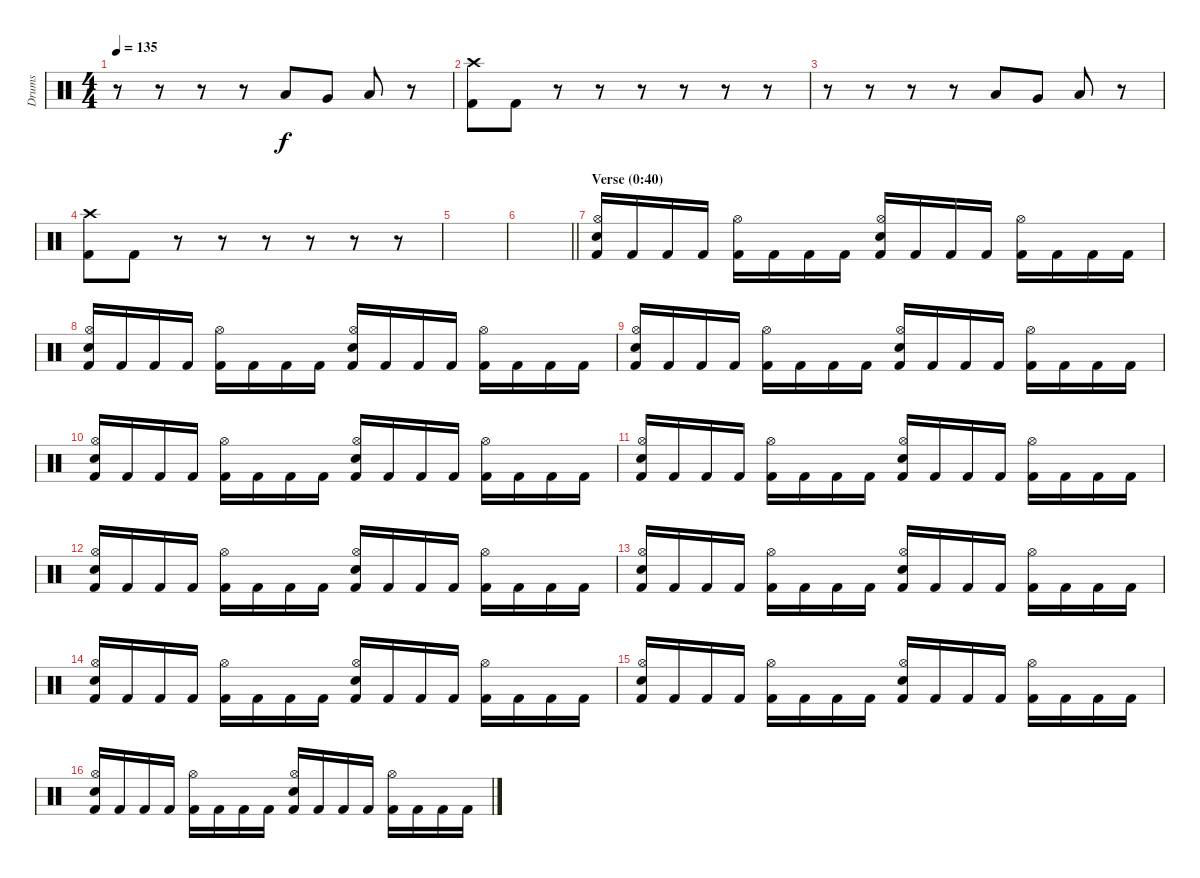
\track ("Drums" "Drums") {instrument percussion}
\staff {score}
\articulation defaults
\ts (4 4)
\tempo 135
\clef neutral
\ks c
r.8{dy f} r.8 r.8 r.8 "Low Tom (hit)".8 "Very Low Tom (hit)".8 "Low Floor Tom (hit)".8 r.8 |
("Crash high (hit)" "Kick (hit) 2").8 "Kick (hit) 2".8 r.8 r.8 r.8 r.8 r.8 r.8 |
r.8 r.8 r.8 r.8 "Low Tom (hit)".8 "Very Low Tom (hit)".8 "Low Floor Tom (hit)".8 r.8 |
("Crash high (hit)" "Kick (hit) 2").8 "Kick (hit) 2".8 r.8 r.8 r.8 r.8 r.8 r.8 |
|
\barLineRight lightlight
|
\section ("" "Verse (0:40)")
("Hi-Hat (open)" "Electric Snare (hit)" "Kick (hit) 2").16 "Kick (hit) 2".16 "Kick (hit) 2".16 "Kick (hit) 2".16 ("Hi-Hat (open)" "Kick (hit) 2").16 "Kick (hit) 2".16 "Kick (hit) 2".16 "Kick (hit) 2".16 ("Hi-Hat (open)" "Electric Snare (hit)" "Kick (hit) 2").16 "Kick (hit) 2".16 "Kick (hit) 2".16 "Kick (hit) 2".16 ("Hi-Hat (open)" "Kick (hit) 2").16 "Kick (hit) 2".16 "Kick (hit) 2".16 "Kick (hit) 2".16 |
("Hi-Hat (open)" "Electric Snare (hit)" "Kick (hit) 2").16 "Kick (hit) 2".16 "Kick (hit) 2".16 "Kick (hit) 2".16 ("Hi-Hat (open)" "Kick (hit) 2").16 "Kick (hit) 2".16 "Kick (hit) 2".16 "Kick (hit) 2".16 ("Hi-Hat (open)" "Electric Snare (hit)" "Kick (hit) 2").16 "Kick (hit) 2".16 "Kick (hit) 2".16 "Kick (hit) 2".16 ("Hi-Hat (open)" "Kick (hit) 2").16 "Kick (hit) 2".16 "Kick (hit) 2".16 "Kick (hit) 2".16 |
("Hi-Hat (open)" "Electric Snare (hit)" "Kick (hit) 2").16 "Kick (hit) 2".16 "Kick (hit) 2".16 "Kick (hit) 2".16 ("Hi-Hat (open)" "Kick (hit) 2").16 "Kick (hit) 2".16 "Kick (hit) 2".16 "Kick (hit) 2".16 ("Hi-Hat (open)" "Electric Snare (hit)" "Kick (hit) 2").16 "Kick (hit) 2".16 "Kick (hit) 2".16 "Kick (hit) 2".16 ("Hi-Hat (open)" "Kick (hit) 2").16 "Kick (hit) 2".16 "Kick (hit) 2".16 "Kick (hit) 2".16 |
("Hi-Hat (open)" "Electric Snare (hit)" "Kick (hit) 2").16 "Kick (hit) 2".16 "Kick (hit) 2".16 "Kick (hit) 2".16 ("Hi-Hat (open)" "Kick (hit) 2").16 "Kick (hit) 2".16 "Kick (hit) 2".16 "Kick (hit) 2".16 ("Hi-Hat (open)" "Electric Snare (hit)" "Kick (hit) 2").16 "Kick (hit) 2".16 "Kick (hit) 2".16 "Kick (hit) 2".16 ("Hi-Hat (open)" "Kick (hit) 2").16 "Kick (hit) 2".16 "Kick (hit) 2".16 "Kick (hit) 2".16 |
("Hi-Hat (open)" "Electric Snare (hit)" "Kick (hit) 2").16 "Kick (hit) 2".16 "Kick (hit) 2".16 "Kick (hit) 2".16 ("Hi-Hat (open)" "Kick (hit) 2").16 "Kick (hit) 2".16 "Kick (hit) 2".16 "Kick (hit) 2".16 ("Hi-Hat (open)" "Electric Snare (hit)" "Kick (hit) 2").16 "Kick (hit) 2".16 "Kick (hit) 2".16 "Kick (hit) 2".16 ("Hi-Hat (open)" "Kick (hit) 2").16 "Kick (hit) 2".16 "Kick (hit) 2".16 "Kick (hit) 2".16 |
("Hi-Hat (open)" "Electric Snare (hit)" "Kick (hit) 2").16 "Kick (hit) 2".16 "Kick (hit) 2".16 "Kick (hit) 2".16 ("Hi-Hat (open)" "Kick (hit) 2").16 "Kick (hit) 2".16 "Kick (hit) 2".16 "Kick (hit) 2".16 ("Hi-Hat (open)" "Electric Snare (hit)" "Kick (hit) 2").16 "Kick (hit) 2".16 "Kick (hit) 2".16 "Kick (hit) 2".16 ("Hi-Hat (open)" "Kick (hit) 2").16 "Kick (hit) 2".16 "Kick (hit) 2".16 "Kick (hit) 2".16 |
("Hi-Hat (open)" "Electric Snare (hit)" "Kick (hit) 2").16 "Kick (hit) 2".16 "Kick (hit) 2".16 "Kick (hit) 2".16 ("Hi-Hat (open)" "Kick (hit) 2").16 "Kick (hit) 2".16 "Kick (hit) 2".16 "Kick (hit) 2".16 ("Hi-Hat (open)" "Electric Snare (hit)" "Kick (hit) 2").16 "Kick (hit) 2".16 "Kick (hit) 2".16 "Kick (hit) 2".16 ("Hi-Hat (open)" "Kick (hit) 2").16 "Kick (hit) 2".16 "Kick (hit) 2".16 "Kick (hit) 2".16 |
("Hi-Hat (open)" "Electric Snare (hit)" "Kick (hit) 2").16 "Kick (hit) 2".16 "Kick (hit) 2".16 "Kick (hit) 2".16 ("Hi-Hat (open)" "Kick (hit) 2").16 "Kick (hit) 2".16 "Kick (hit) 2".16 "Kick (hit) 2".16 ("Hi-Hat (open)" "Electric Snare (hit)" "Kick (hit) 2").16 "Kick (hit) 2".16 "Kick (hit) 2".16 "Kick (hit) 2".16 ("Hi-Hat (open)" "Kick (hit) 2").16 "Kick (hit) 2".16 "Kick (hit) 2".16 "Kick (hit) 2".16 |
("Hi-Hat (open)" "Electric Snare (hit)" "Kick (hit) 2").16 "Kick (hit) 2".16 "Kick (hit) 2".16 "Kick (hit) 2".16 ("Hi-Hat (open)" "Kick (hit) 2").16 "Kick (hit) 2".16 "Kick (hit) 2".16 "Kick (hit) 2".16 ("Hi-Hat (open)" "Electric Snare (hit)" "Kick (hit) 2").16 "Kick (hit) 2".16 "Kick (hit) 2".16 "Kick (hit) 2".16 ("Hi-Hat (open)" "Kick (hit) 2").16 "Kick (hit) 2".16 "Kick (hit) 2".16 "Kick (hit) 2".16 |
("Hi-Hat (open)" "Electric Snare (hit)" "Kick (hit) 2").16 "Kick (hit) 2".16 "Kick (hit) 2".16 "Kick (hit) 2".16 ("Hi-Hat (open)" "Kick (hit) 2").16 "Kick (hit) 2".16 "Kick (hit) 2".16 "Kick (hit) 2".16 ("Hi-Hat (open)" "Electric Snare (hit)" "Kick (hit) 2").16 "Kick (hit) 2".16 "Kick (hit) 2".16 "Kick (hit) 2".16 ("Hi-Hat (open)" "Kick (hit) 2").16 "Kick (hit) 2".16 "Kick (hit) 2".16 "Kick (hit) 2".16
